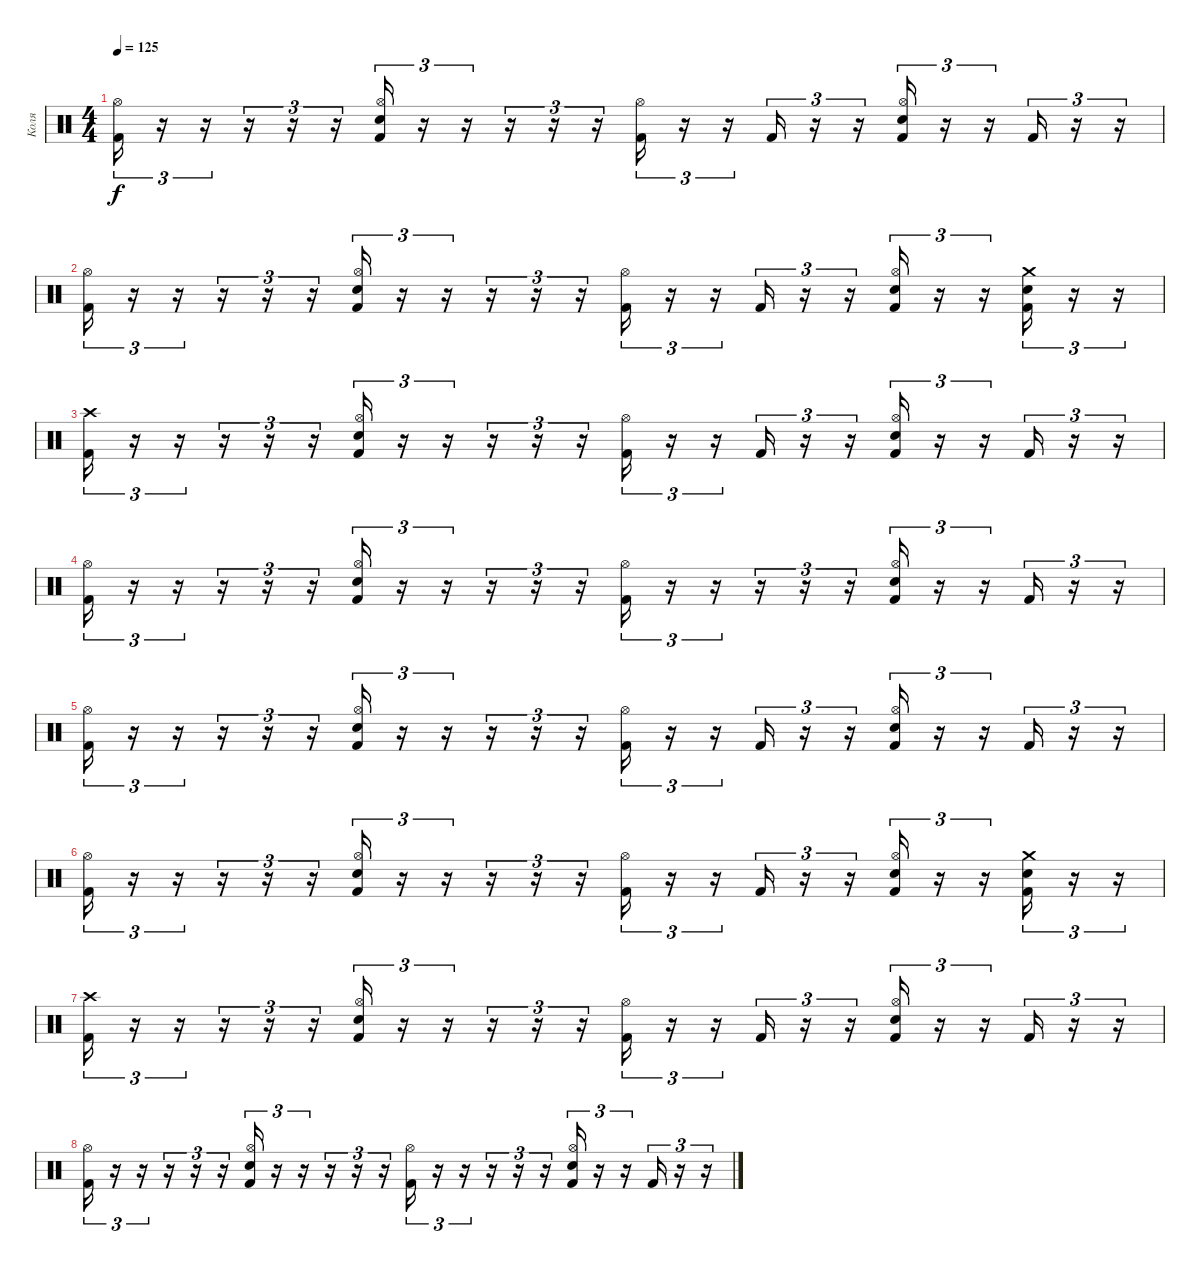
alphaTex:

\track ("Коля" "Коля") {instrument percussion}
\staff {score}
\articulation defaults
\ts (4 4)
\tempo 125
\clef neutral
\ks c
("Kick (hit) 2" "Hi-Hat (open)").16{tu (3 2) dy f} r.16{tu (3 2)} r.16{tu (3 2)} r.16{tu (3 2)} r.16{tu (3 2)} r.16{tu (3 2)} ("Kick (hit) 2" "Snare (hit) 2" "Hi-Hat (open)").16{tu (3 2)} r.16{tu (3 2)} r.16{tu (3 2)} r.16{tu (3 2)} r.16{tu (3 2)} r.16{tu (3 2)} ("Kick (hit) 2" "Hi-Hat (open)").16{tu (3 2)} r.16{tu (3 2)} r.16{tu (3 2)} "Kick (hit) 2".16{tu (3 2)} r.16{tu (3 2)} r.16{tu (3 2)} ("Kick (hit) 2" "Snare (hit) 2" "Hi-Hat (open)").16{tu (3 2)} r.16{tu (3 2)} r.16{tu (3 2)} "Kick (hit) 2".16{tu (3 2)} r.16{tu (3 2)} r.16{tu (3 2)} |
("Kick (hit) 2" "Hi-Hat (open)").16{tu (3 2)} r.16{tu (3 2)} r.16{tu (3 2)} r.16{tu (3 2)} r.16{tu (3 2)} r.16{tu (3 2)} ("Kick (hit) 2" "Snare (hit) 2" "Hi-Hat (open)").16{tu (3 2)} r.16{tu (3 2)} r.16{tu (3 2)} r.16{tu (3 2)} r.16{tu (3 2)} r.16{tu (3 2)} ("Kick (hit) 2" "Hi-Hat (open)").16{tu (3 2)} r.16{tu (3 2)} r.16{tu (3 2)} "Kick (hit) 2".16{tu (3 2)} r.16{tu (3 2)} r.16{tu (3 2)} ("Kick (hit) 2" "Snare (hit) 2" "Hi-Hat (open)").16{tu (3 2)} r.16{tu (3 2)} r.16{tu (3 2)} ("Kick (hit) 2" "Snare (hit) 2" "Crash medium (hit)").16{tu (3 2)} r.16{tu (3 2)} r.16{tu (3 2)} |
("Kick (hit) 2" "Crash high (hit)").16{tu (3 2)} r.16{tu (3 2)} r.16{tu (3 2)} r.16{tu (3 2)} r.16{tu (3 2)} r.16{tu (3 2)} ("Kick (hit) 2" "Snare (hit) 2" "Hi-Hat (open)").16{tu (3 2)} r.16{tu (3 2)} r.16{tu (3 2)} r.16{tu (3 2)} r.16{tu (3 2)} r.16{tu (3 2)} ("Kick (hit) 2" "Hi-Hat (open)").16{tu (3 2)} r.16{tu (3 2)} r.16{tu (3 2)} "Kick (hit) 2".16{tu (3 2)} r.16{tu (3 2)} r.16{tu (3 2)} ("Kick (hit) 2" "Snare (hit) 2" "Hi-Hat (open)").16{tu (3 2)} r.16{tu (3 2)} r.16{tu (3 2)} "Kick (hit) 2".16{tu (3 2)} r.16{tu (3 2)} r.16{tu (3 2)} |
("Kick (hit) 2" "Hi-Hat (open)").16{tu (3 2)} r.16{tu (3 2)} r.16{tu (3 2)} r.16{tu (3 2)} r.16{tu (3 2)} r.16{tu (3 2)} ("Kick (hit) 2" "Snare (hit) 2" "Hi-Hat (open)").16{tu (3 2)} r.16{tu (3 2)} r.16{tu (3 2)} r.16{tu (3 2)} r.16{tu (3 2)} r.16{tu (3 2)} ("Kick (hit) 2" "Hi-Hat (open)").16{tu (3 2)} r.16{tu (3 2)} r.16{tu (3 2)} r.16{tu (3 2)} r.16{tu (3 2)} r.16{tu (3 2)} ("Kick (hit) 2" "Snare (hit) 2" "Hi-Hat (open)").16{tu (3 2)} r.16{tu (3 2)} r.16{tu (3 2)} "Kick (hit) 2".16{tu (3 2)} r.16{tu (3 2)} r.16{tu (3 2)} |
("Kick (hit) 2" "Hi-Hat (open)").16{tu (3 2)} r.16{tu (3 2)} r.16{tu (3 2)} r.16{tu (3 2)} r.16{tu (3 2)} r.16{tu (3 2)} ("Kick (hit) 2" "Snare (hit) 2" "Hi-Hat (open)").16{tu (3 2)} r.16{tu (3 2)} r.16{tu (3 2)} r.16{tu (3 2)} r.16{tu (3 2)} r.16{tu (3 2)} ("Kick (hit) 2" "Hi-Hat (open)").16{tu (3 2)} r.16{tu (3 2)} r.16{tu (3 2)} "Kick (hit) 2".16{tu (3 2)} r.16{tu (3 2)} r.16{tu (3 2)} ("Kick (hit) 2" "Snare (hit) 2" "Hi-Hat (open)").16{tu (3 2)} r.16{tu (3 2)} r.16{tu (3 2)} "Kick (hit) 2".16{tu (3 2)} r.16{tu (3 2)} r.16{tu (3 2)} |
("Kick (hit) 2" "Hi-Hat (open)").16{tu (3 2)} r.16{tu (3 2)} r.16{tu (3 2)} r.16{tu (3 2)} r.16{tu (3 2)} r.16{tu (3 2)} ("Kick (hit) 2" "Snare (hit) 2" "Hi-Hat (open)").16{tu (3 2)} r.16{tu (3 2)} r.16{tu (3 2)} r.16{tu (3 2)} r.16{tu (3 2)} r.16{tu (3 2)} ("Kick (hit) 2" "Hi-Hat (open)").16{tu (3 2)} r.16{tu (3 2)} r.16{tu (3 2)} "Kick (hit) 2".16{tu (3 2)} r.16{tu (3 2)} r.16{tu (3 2)} ("Kick (hit) 2" "Snare (hit) 2" "Hi-Hat (open)").16{tu (3 2)} r.16{tu (3 2)} r.16{tu (3 2)} ("Kick (hit) 2" "Snare (hit) 2" "Crash medium (hit)").16{tu (3 2)} r.16{tu (3 2)} r.16{tu (3 2)} |
("Kick (hit) 2" "Crash high (hit)").16{tu (3 2)} r.16{tu (3 2)} r.16{tu (3 2)} r.16{tu (3 2)} r.16{tu (3 2)} r.16{tu (3 2)} ("Kick (hit) 2" "Snare (hit) 2" "Hi-Hat (open)").16{tu (3 2)} r.16{tu (3 2)} r.16{tu (3 2)} r.16{tu (3 2)} r.16{tu (3 2)} r.16{tu (3 2)} ("Kick (hit) 2" "Hi-Hat (open)").16{tu (3 2)} r.16{tu (3 2)} r.16{tu (3 2)} "Kick (hit) 2".16{tu (3 2)} r.16{tu (3 2)} r.16{tu (3 2)} ("Kick (hit) 2" "Snare (hit) 2" "Hi-Hat (open)").16{tu (3 2)} r.16{tu (3 2)} r.16{tu (3 2)} "Kick (hit) 2".16{tu (3 2)} r.16{tu (3 2)} r.16{tu (3 2)} |
("Kick (hit) 2" "Hi-Hat (open)").16{tu (3 2)} r.16{tu (3 2)} r.16{tu (3 2)} r.16{tu (3 2)} r.16{tu (3 2)} r.16{tu (3 2)} ("Kick (hit) 2" "Snare (hit) 2" "Hi-Hat (open)").16{tu (3 2)} r.16{tu (3 2)} r.16{tu (3 2)} r.16{tu (3 2)} r.16{tu (3 2)} r.16{tu (3 2)} ("Kick (hit) 2" "Hi-Hat (open)").16{tu (3 2)} r.16{tu (3 2)} r.16{tu (3 2)} r.16{tu (3 2)} r.16{tu (3 2)} r.16{tu (3 2)} ("Kick (hit) 2" "Snare (hit) 2" "Hi-Hat (open)").16{tu (3 2)} r.16{tu (3 2)} r.16{tu (3 2)} "Kick (hit) 2".16{tu (3 2)} r.16{tu (3 2)} r.16{tu (3 2)}
